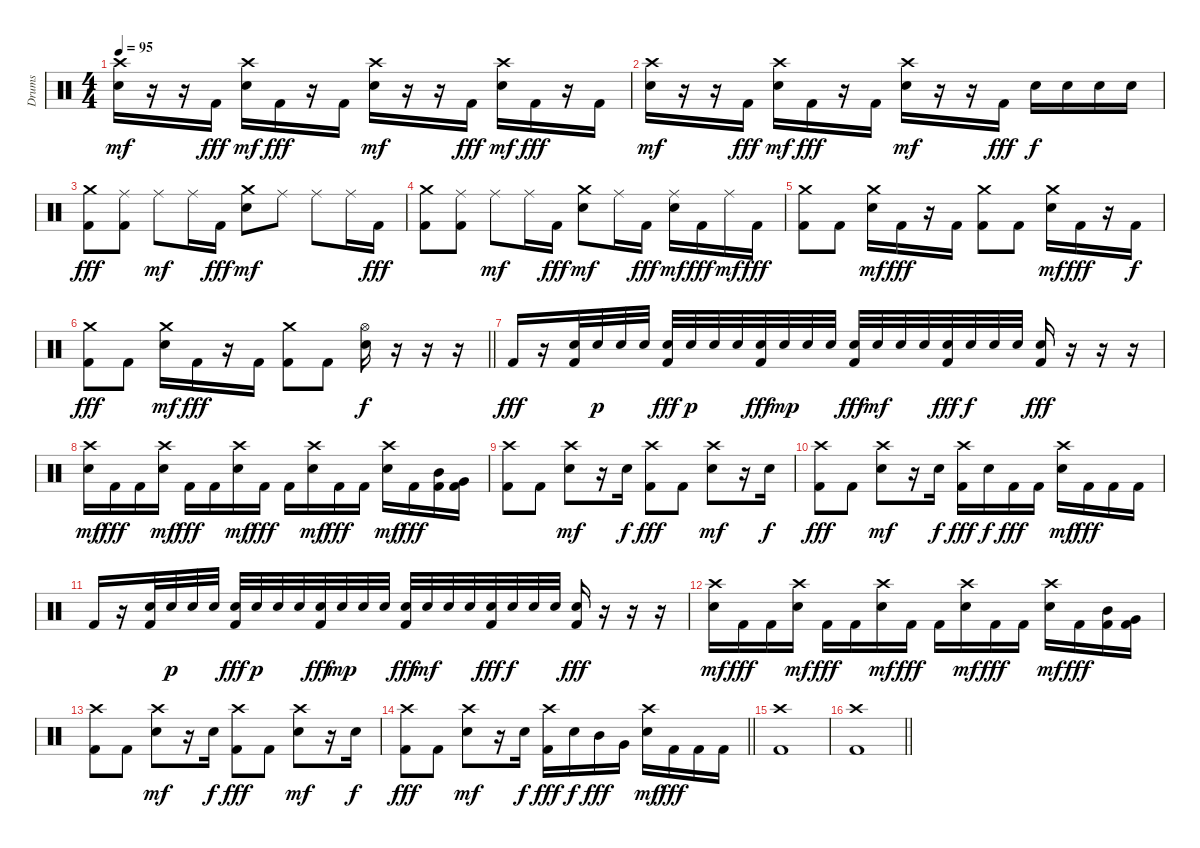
\track ("Drums" "Drums") {instrument percussion}
\staff {score}
\articulation defaults
\ts (4 4)
\tempo 95
\clef neutral
\ks c
("Crash high (hit)" "Snare (hit) 2").16{dy mf} r.16 r.16 "Kick (hit) 2".16{dy fff} ("Crash high (hit)" "Snare (hit) 2").16{dy mf} "Kick (hit) 2".16{dy fff} r.16 "Kick (hit) 2".16 ("Crash high (hit)" "Snare (hit) 2").16{dy mf} r.16 r.16 "Kick (hit) 2".16{dy fff} ("Crash high (hit)" "Snare (hit) 2").16{dy mf} "Kick (hit) 2".16{dy fff} r.16 "Kick (hit) 2".16 |
("Crash high (hit)" "Snare (hit) 2").16{dy mf} r.16 r.16 "Kick (hit) 2".16{dy fff} ("Crash high (hit)" "Snare (hit) 2").16{dy mf} "Kick (hit) 2".16{dy fff} r.16 "Kick (hit) 2".16 ("Crash high (hit)" "Snare (hit) 2").16{dy mf} r.16 r.16 "Kick (hit) 2".16{dy fff} "Snare (hit) 2".16{dy f} "Snare (hit) 2".16 "Snare (hit) 2".16 "Snare (hit) 2".16 |
("Crash medium (hit)" "Kick (hit) 2").8{dy fff} ("Ride (middle)" "Kick (hit) 2").8 "Ride (middle)".8{dy mf} "Ride (middle)".16 "Kick (hit) 2".16{dy fff} ("Crash medium (hit)" "Snare (hit) 2").8{dy mf} "Ride (middle)".8 "Ride (middle)".8 "Ride (middle)".16 "Kick (hit) 2".16{dy fff} |
("Crash medium (hit)" "Kick (hit) 2").8 ("Ride (middle)" "Kick (hit) 2").8 "Ride (middle)".8{dy mf} "Ride (middle)".16 "Kick (hit) 2".16{dy fff} ("Crash medium (hit)" "Snare (hit) 2").8{dy mf} "Ride (middle)".16 "Kick (hit) 2".16{dy fff} ("Ride (middle)" "Snare (hit) 2").16{dy mf} "Kick (hit) 2".16{dy fff} "Ride (middle)".16{dy mf} "Kick (hit) 2".16{dy fff} |
("Crash medium (hit)" "Kick (hit) 2").8 "Kick (hit) 2".8 ("Crash medium (hit)" "Snare (hit) 2").16{dy mf} "Kick (hit) 2".16{dy fff} r.16 "Kick (hit) 2".16 ("Crash medium (hit)" "Kick (hit) 2").8 "Kick (hit) 2".8 ("Crash medium (hit)" "Snare (hit) 2").16{dy mf} "Kick (hit) 2".16{dy fff} r.16 "Kick (hit) 2".16{dy f} |
\barLineRight lightlight
("Crash medium (hit)" "Kick (hit) 2").8{dy fff} "Kick (hit) 2".8 ("Crash medium (hit)" "Snare (hit) 2").16{dy mf} "Kick (hit) 2".16{dy fff} r.16 "Kick (hit) 2".16 ("Crash medium (hit)" "Kick (hit) 2").8 "Kick (hit) 2".8 ("Hi-Hat (open)" "Snare (hit) 2").16{dy f} r.16 r.16 r.16 |
"Kick (hit) 2".16{dy fff} r.16 ("Snare (hit) 2" "Kick (hit) 2").32 "Snare (hit) 2".32{dy p} "Snare (hit) 2".32 "Snare (hit) 2".32 ("Snare (hit) 2" "Kick (hit) 2").32{dy fff} "Snare (hit) 2".32{dy p} "Snare (hit) 2".32 "Snare (hit) 2".32 ("Snare (hit) 2" "Kick (hit) 2").32{dy fff} "Snare (hit) 2".32{dy mp} "Snare (hit) 2".32 "Snare (hit) 2".32 ("Snare (hit) 2" "Kick (hit) 2").32{dy fff} "Snare (hit) 2".32{dy mf} "Snare (hit) 2".32 "Snare (hit) 2".32 ("Snare (hit) 2" "Kick (hit) 2").32{dy fff} "Snare (hit) 2".32{dy f} "Snare (hit) 2".32 "Snare (hit) 2".32 ("Snare (hit) 2" "Kick (hit) 2").16{dy fff} r.16 r.16 r.16 |
("Crash high (hit)" "Snare (hit) 2").16{dy mf} "Kick (hit) 2".16{dy fff} "Kick (hit) 2".16 ("Crash high (hit)" "Snare (hit) 2").16{dy mf} "Kick (hit) 2".16{dy fff} "Kick (hit) 2".16 ("Crash high (hit)" "Snare (hit) 2").16{dy mf} "Kick (hit) 2".16{dy fff} "Kick (hit) 2".16 ("Crash high (hit)" "Snare (hit) 2").16{dy mf} "Kick (hit) 2".16{dy fff} "Kick (hit) 2".16 ("Crash high (hit)" "Snare (hit) 2").16{dy mf} "Kick (hit) 2".16{dy fff} ("Mid Tom (hit)" "Kick (hit) 2").16 ("Very Low Tom (hit)" "Kick (hit) 2").16 |
("Crash high (hit)" "Kick (hit) 2").8 "Kick (hit) 2".8 ("Crash high (hit)" "Snare (hit) 2").8{dy mf} r.16 "Snare (hit) 2".16{dy f} ("Crash high (hit)" "Kick (hit) 2").8{dy fff} "Kick (hit) 2".8 ("Crash high (hit)" "Snare (hit) 2").8{dy mf} r.16 "Snare (hit) 2".16{dy f} |
("Crash high (hit)" "Kick (hit) 2").8{dy fff} "Kick (hit) 2".8 ("Crash high (hit)" "Snare (hit) 2").8{dy mf} r.16 "Snare (hit) 2".16{dy f} ("Crash high (hit)" "Kick (hit) 2").16{dy fff} "Snare (hit) 2".16{dy f} "Kick (hit) 2".16{dy fff} "Kick (hit) 2".16 ("Crash high (hit)" "Snare (hit) 2").16{dy mf} "Kick (hit) 2".16{dy fff} "Kick (hit) 2".16 "Kick (hit) 2".16 |
"Kick (hit) 2".16 r.16 ("Snare (hit) 2" "Kick (hit) 2").32 "Snare (hit) 2".32{dy p} "Snare (hit) 2".32 "Snare (hit) 2".32 ("Snare (hit) 2" "Kick (hit) 2").32{dy fff} "Snare (hit) 2".32{dy p} "Snare (hit) 2".32 "Snare (hit) 2".32 ("Snare (hit) 2" "Kick (hit) 2").32{dy fff} "Snare (hit) 2".32{dy mp} "Snare (hit) 2".32 "Snare (hit) 2".32 ("Snare (hit) 2" "Kick (hit) 2").32{dy fff} "Snare (hit) 2".32{dy mf} "Snare (hit) 2".32 "Snare (hit) 2".32 ("Snare (hit) 2" "Kick (hit) 2").32{dy fff} "Snare (hit) 2".32{dy f} "Snare (hit) 2".32 "Snare (hit) 2".32 ("Snare (hit) 2" "Kick (hit) 2").16{dy fff} r.16 r.16 r.16 |
("Crash high (hit)" "Snare (hit) 2").16{dy mf} "Kick (hit) 2".16{dy fff} "Kick (hit) 2".16 ("Crash high (hit)" "Snare (hit) 2").16{dy mf} "Kick (hit) 2".16{dy fff} "Kick (hit) 2".16 ("Crash high (hit)" "Snare (hit) 2").16{dy mf} "Kick (hit) 2".16{dy fff} "Kick (hit) 2".16 ("Crash high (hit)" "Snare (hit) 2").16{dy mf} "Kick (hit) 2".16{dy fff} "Kick (hit) 2".16 ("Crash high (hit)" "Snare (hit) 2").16{dy mf} "Kick (hit) 2".16{dy fff} ("Mid Tom (hit)" "Kick (hit) 2").16 ("Very Low Tom (hit)" "Kick (hit) 2").16 |
("Crash high (hit)" "Kick (hit) 2").8 "Kick (hit) 2".8 ("Crash high (hit)" "Snare (hit) 2").8{dy mf} r.16 "Snare (hit) 2".16{dy f} ("Crash high (hit)" "Kick (hit) 2").8{dy fff} "Kick (hit) 2".8 ("Crash high (hit)" "Snare (hit) 2").8{dy mf} r.16 "Snare (hit) 2".16{dy f} |
\barLineRight lightlight
("Crash high (hit)" "Kick (hit) 2").8{dy fff} "Kick (hit) 2".8 ("Crash high (hit)" "Snare (hit) 2").8{dy mf} r.16 "Snare (hit) 2".16{dy f} ("Crash high (hit)" "Kick (hit) 2").16{dy fff} "Snare (hit) 2".16{dy f} "Mid Tom (hit)".16{dy fff} "Very Low Tom (hit)".16 ("Crash high (hit)" "Snare (hit) 2").16{dy mf} "Kick (hit) 2".16{dy fff} "Kick (hit) 2".16 "Kick (hit) 2".16 |
("Crash high (hit)" "Kick (hit) 2").1 |
\barLineRight lightlight
("Crash high (hit)" "Kick (hit) 2").1
